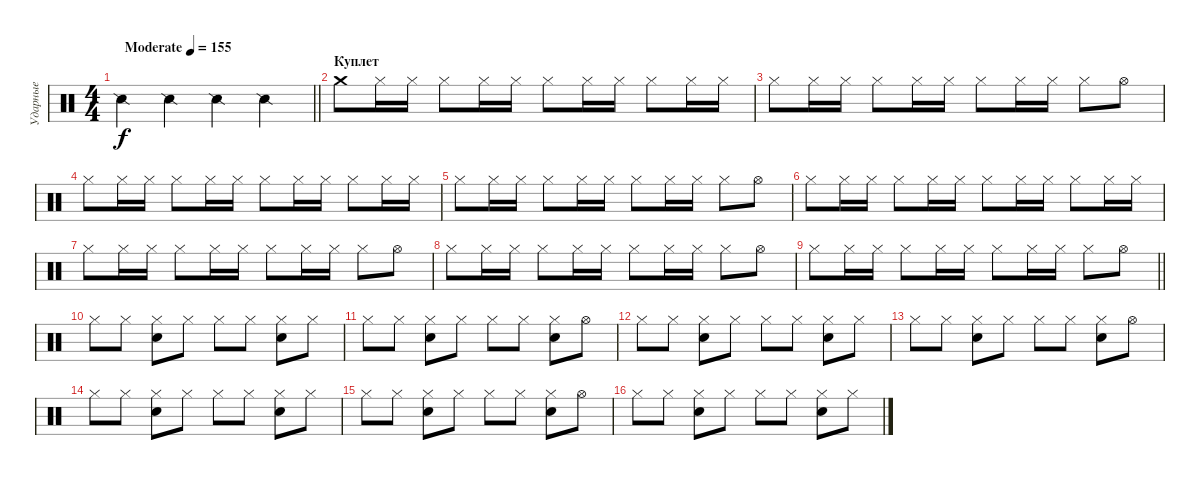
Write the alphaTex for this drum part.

\track ("Ударные" "Ударные") {instrument percussion}
\staff {score}
\articulation defaults
\ts (4 4)
\tempo (155 "Moderate")
\clef neutral
\barLineRight lightlight
\ks c "Snare (side stick) 2".4{dy f} "Snare (side stick) 2".4 "Snare (side stick) 2".4 "Snare (side stick) 2".4
|
\section ("" "Куплет")
"Crash medium (hit)".8 "Hi-Hat (closed)".16 "Hi-Hat (closed)".16 "Hi-Hat (closed)".8 "Hi-Hat (closed)".16 "Hi-Hat (closed)".16 "Hi-Hat (closed)".8 "Hi-Hat (closed)".16 "Hi-Hat (closed)".16 "Hi-Hat (closed)".8 "Hi-Hat (closed)".16 "Hi-Hat (closed)".16 |
"Hi-Hat (closed)".8 "Hi-Hat (closed)".16 "Hi-Hat (closed)".16 "Hi-Hat (closed)".8 "Hi-Hat (closed)".16 "Hi-Hat (closed)".16 "Hi-Hat (closed)".8 "Hi-Hat (closed)".16 "Hi-Hat (closed)".16 "Hi-Hat (closed)".8 "Hi-Hat (open)".8 |
"Hi-Hat (closed)".8 "Hi-Hat (closed)".16 "Hi-Hat (closed)".16 "Hi-Hat (closed)".8 "Hi-Hat (closed)".16 "Hi-Hat (closed)".16 "Hi-Hat (closed)".8 "Hi-Hat (closed)".16 "Hi-Hat (closed)".16 "Hi-Hat (closed)".8 "Hi-Hat (closed)".16 "Hi-Hat (closed)".16 |
"Hi-Hat (closed)".8 "Hi-Hat (closed)".16 "Hi-Hat (closed)".16 "Hi-Hat (closed)".8 "Hi-Hat (closed)".16 "Hi-Hat (closed)".16 "Hi-Hat (closed)".8 "Hi-Hat (closed)".16 "Hi-Hat (closed)".16 "Hi-Hat (closed)".8 "Hi-Hat (open)".8 |
"Hi-Hat (closed)".8 "Hi-Hat (closed)".16 "Hi-Hat (closed)".16 "Hi-Hat (closed)".8 "Hi-Hat (closed)".16 "Hi-Hat (closed)".16 "Hi-Hat (closed)".8 "Hi-Hat (closed)".16 "Hi-Hat (closed)".16 "Hi-Hat (closed)".8 "Hi-Hat (closed)".16 "Hi-Hat (closed)".16 |
"Hi-Hat (closed)".8 "Hi-Hat (closed)".16 "Hi-Hat (closed)".16 "Hi-Hat (closed)".8 "Hi-Hat (closed)".16 "Hi-Hat (closed)".16 "Hi-Hat (closed)".8 "Hi-Hat (closed)".16 "Hi-Hat (closed)".16 "Hi-Hat (closed)".8 "Hi-Hat (open)".8 |
"Hi-Hat (closed)".8 "Hi-Hat (closed)".16 "Hi-Hat (closed)".16 "Hi-Hat (closed)".8 "Hi-Hat (closed)".16 "Hi-Hat (closed)".16 "Hi-Hat (closed)".8 "Hi-Hat (closed)".16 "Hi-Hat (closed)".16 "Hi-Hat (closed)".8 "Hi-Hat (open)".8 |
\barLineRight lightlight "Hi-Hat (closed)".8 "Hi-Hat (closed)".16 "Hi-Hat (closed)".16 "Hi-Hat (closed)".8 "Hi-Hat (closed)".16 "Hi-Hat (closed)".16 "Hi-Hat (closed)".8 "Hi-Hat (closed)".16 "Hi-Hat (closed)".16 "Hi-Hat (closed)".8 "Hi-Hat (open)".8
|
\section ("" " ")
"Hi-Hat (closed)".8 "Hi-Hat (closed)".8 ("Hi-Hat (closed)" "Electric Snare (hit)").8 "Hi-Hat (closed)".8 "Hi-Hat (closed)".8 "Hi-Hat (closed)".8 ("Hi-Hat (closed)" "Electric Snare (hit)").8 "Hi-Hat (closed)".8 |
"Hi-Hat (closed)".8 "Hi-Hat (closed)".8 ("Hi-Hat (closed)" "Electric Snare (hit)").8 "Hi-Hat (closed)".8 "Hi-Hat (closed)".8 "Hi-Hat (closed)".8 ("Hi-Hat (closed)" "Electric Snare (hit)").8 "Hi-Hat (open)".8 |
"Hi-Hat (closed)".8 "Hi-Hat (closed)".8 ("Hi-Hat (closed)" "Electric Snare (hit)").8 "Hi-Hat (closed)".8 "Hi-Hat (closed)".8 "Hi-Hat (closed)".8 ("Hi-Hat (closed)" "Electric Snare (hit)").8 "Hi-Hat (closed)".8 |
"Hi-Hat (closed)".8 "Hi-Hat (closed)".8 ("Hi-Hat (closed)" "Electric Snare (hit)").8 "Hi-Hat (closed)".8 "Hi-Hat (closed)".8 "Hi-Hat (closed)".8 ("Hi-Hat (closed)" "Electric Snare (hit)").8 "Hi-Hat (open)".8 |
"Hi-Hat (closed)".8 "Hi-Hat (closed)".8 ("Hi-Hat (closed)" "Electric Snare (hit)").8 "Hi-Hat (closed)".8 "Hi-Hat (closed)".8 "Hi-Hat (closed)".8 ("Hi-Hat (closed)" "Electric Snare (hit)").8 "Hi-Hat (closed)".8 |
"Hi-Hat (closed)".8 "Hi-Hat (closed)".8 ("Hi-Hat (closed)" "Electric Snare (hit)").8 "Hi-Hat (closed)".8 "Hi-Hat (closed)".8 "Hi-Hat (closed)".8 ("Hi-Hat (closed)" "Electric Snare (hit)").8 "Hi-Hat (open)".8 |
"Hi-Hat (closed)".8 "Hi-Hat (closed)".8 ("Hi-Hat (closed)" "Electric Snare (hit)").8 "Hi-Hat (closed)".8 "Hi-Hat (closed)".8 "Hi-Hat (closed)".8 ("Hi-Hat (closed)" "Electric Snare (hit)").8 "Hi-Hat (closed)".8
